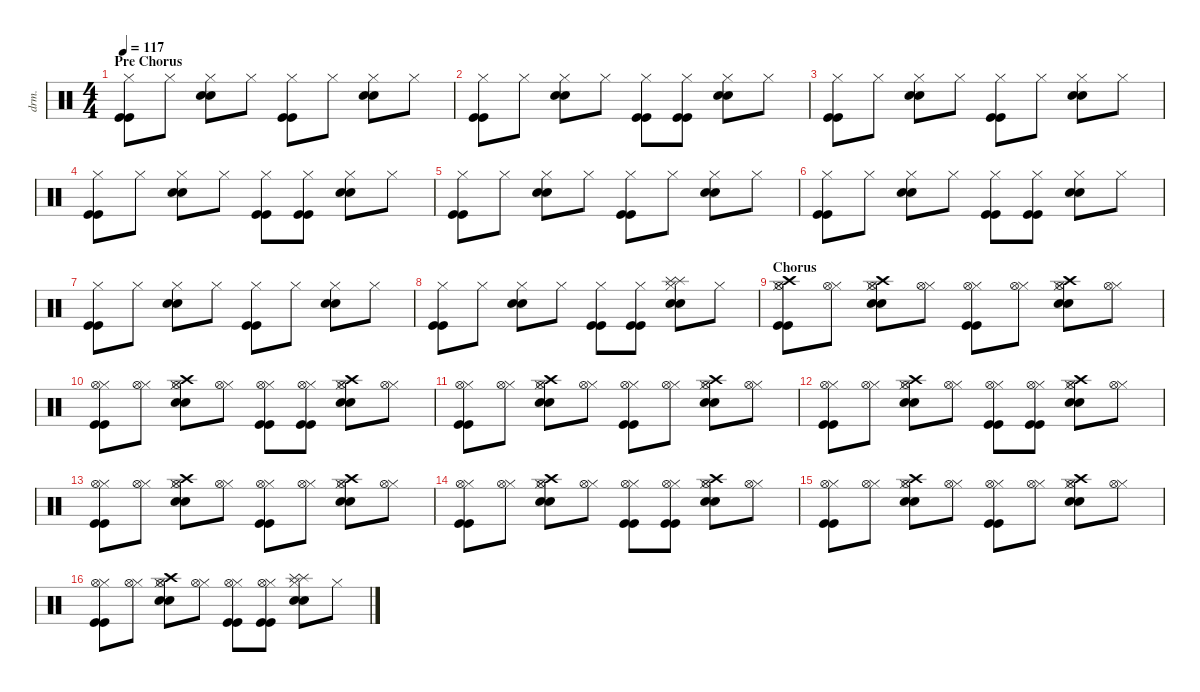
\defaultSystemsLayout 4
\hideDynamics
\bracketExtendMode nobrackets
\otherSystemsTrackNameOrientation horizontal
\track ("Drums" "drm.") {instrument percussion}
\staff {score}
\articulation defaults
\ts (4 4)
\section ("" "Pre Chorus")
\tempo 117
\clef neutral
\ks c
("Kick (hit)" "Kick (hit)" "Hi-Hat (closed)").8{dy f beam Down} "Hi-Hat (closed)".8{beam Down} ("Snare (hit) 2" "Snare (hit) 2" "Hi-Hat (closed)").8{dy mf beam Down} "Hi-Hat (closed)".8{dy f beam Down} ("Kick (hit)" "Kick (hit)" "Hi-Hat (closed)").8{beam Down} "Hi-Hat (closed)".8{beam Down} ("Snare (hit) 2" "Snare (hit) 2" "Hi-Hat (closed)").8{dy mf beam Down} "Hi-Hat (closed)".8{dy f beam Down} |
("Kick (hit)" "Kick (hit)" "Hi-Hat (closed)").8{beam Down} "Hi-Hat (closed)".8{beam Down} ("Snare (hit) 2" "Snare (hit) 2" "Hi-Hat (closed)").8{dy mf beam Down} "Hi-Hat (closed)".8{dy f beam Down} ("Kick (hit)" "Kick (hit)" "Hi-Hat (closed)").8{beam Down} ("Kick (hit)" "Kick (hit)" "Hi-Hat (closed)").8{beam Down} ("Snare (hit) 2" "Snare (hit) 2" "Hi-Hat (closed)").8{dy mf beam Down} "Hi-Hat (closed)".8{dy f beam Down} |
("Kick (hit)" "Kick (hit)" "Hi-Hat (closed)").8{beam Down} "Hi-Hat (closed)".8{beam Down} ("Snare (hit) 2" "Snare (hit) 2" "Hi-Hat (closed)").8{dy mf beam Down} "Hi-Hat (closed)".8{dy f beam Down} ("Kick (hit)" "Kick (hit)" "Hi-Hat (closed)").8{beam Down} "Hi-Hat (closed)".8{beam Down} ("Snare (hit) 2" "Snare (hit) 2" "Hi-Hat (closed)").8{dy mf beam Down} "Hi-Hat (closed)".8{dy f beam Down} |
("Kick (hit)" "Kick (hit)" "Hi-Hat (closed)").8{beam Down} "Hi-Hat (closed)".8{beam Down} ("Snare (hit) 2" "Snare (hit) 2" "Hi-Hat (closed)").8{dy mf beam Down} "Hi-Hat (closed)".8{dy f beam Down} ("Kick (hit)" "Kick (hit)" "Hi-Hat (closed)").8{beam Down} ("Kick (hit)" "Kick (hit)" "Hi-Hat (closed)").8{beam Down} ("Snare (hit) 2" "Snare (hit) 2" "Hi-Hat (closed)").8{dy mf beam Down} "Hi-Hat (closed)".8{dy f beam Down} |
("Kick (hit)" "Kick (hit)" "Hi-Hat (closed)").8{beam Down} "Hi-Hat (closed)".8{beam Down} ("Snare (hit) 2" "Snare (hit) 2" "Hi-Hat (closed)").8{dy mf beam Down} "Hi-Hat (closed)".8{dy f beam Down} ("Kick (hit)" "Kick (hit)" "Hi-Hat (closed)").8{beam Down} "Hi-Hat (closed)".8{beam Down} ("Snare (hit) 2" "Snare (hit) 2" "Hi-Hat (closed)").8{dy mf beam Down} "Hi-Hat (closed)".8{dy f beam Down} |
("Kick (hit)" "Kick (hit)" "Hi-Hat (closed)").8{beam Down} "Hi-Hat (closed)".8{beam Down} ("Snare (hit) 2" "Snare (hit) 2" "Hi-Hat (closed)").8{dy mf beam Down} "Hi-Hat (closed)".8{dy f beam Down} ("Kick (hit)" "Kick (hit)" "Hi-Hat (closed)").8{beam Down} ("Kick (hit)" "Kick (hit)" "Hi-Hat (closed)").8{beam Down} ("Snare (hit) 2" "Snare (hit) 2" "Hi-Hat (closed)").8{dy mf beam Down} "Hi-Hat (closed)".8{dy f beam Down} |
("Kick (hit)" "Kick (hit)" "Hi-Hat (closed)").8{beam Down} "Hi-Hat (closed)".8{beam Down} ("Snare (hit) 2" "Snare (hit) 2" "Hi-Hat (closed)").8{dy mf beam Down} "Hi-Hat (closed)".8{dy f beam Down} ("Kick (hit)" "Kick (hit)" "Hi-Hat (closed)").8{beam Down} "Hi-Hat (closed)".8{beam Down} ("Snare (hit) 2" "Snare (hit) 2" "Hi-Hat (closed)").8{dy mf beam Down} "Hi-Hat (closed)".8{dy f beam Down} |
("Kick (hit)" "Kick (hit)" "Hi-Hat (closed)").8{beam Down} "Hi-Hat (closed)".8{beam Down} ("Snare (hit) 2" "Snare (hit) 2" "Hi-Hat (closed)").8{dy mf beam Down} "Hi-Hat (closed)".8{dy f beam Down} ("Kick (hit)" "Kick (hit)" "Hi-Hat (closed)").8{beam Down} ("Kick (hit)" "Kick (hit)" "Hi-Hat (closed)").8{beam Down} ("Snare (hit) 2" "Snare (hit) 2" "Hi-Hat (closed)" "Splash (hit)" "Splash (hit)").8{dy mf beam Down} "Hi-Hat (closed)".8{dy f beam Down} |
\section ("" "Chorus")
("Kick (hit)" "Kick (hit)" "Hi-Hat (closed)" "Hi-Hat (open)" "Crash high (hit)").8{beam Down} ("Hi-Hat (closed)" "Hi-Hat (open)").8{beam Down} ("Snare (hit) 2" "Snare (hit) 2" "Hi-Hat (closed)" "Hi-Hat (open)" "Crash high (hit)").8{beam Down} ("Hi-Hat (closed)" "Hi-Hat (open)").8{beam Down} ("Kick (hit)" "Kick (hit)" "Hi-Hat (closed)" "Hi-Hat (open)").8{beam Down} ("Hi-Hat (closed)" "Hi-Hat (open)").8{beam Down} ("Snare (hit) 2" "Snare (hit) 2" "Hi-Hat (closed)" "Hi-Hat (open)" "Crash high (hit)").8{beam Down} ("Hi-Hat (closed)" "Hi-Hat (open)").8{beam Down} |
("Kick (hit)" "Kick (hit)" "Hi-Hat (closed)" "Hi-Hat (open)").8{beam Down} ("Hi-Hat (closed)" "Hi-Hat (open)").8{beam Down} ("Snare (hit) 2" "Snare (hit) 2" "Hi-Hat (closed)" "Hi-Hat (open)" "Crash high (hit)").8{beam Down} ("Hi-Hat (closed)" "Hi-Hat (open)").8{beam Down} ("Kick (hit)" "Kick (hit)" "Hi-Hat (closed)" "Hi-Hat (open)").8{beam Down} ("Kick (hit)" "Kick (hit)" "Hi-Hat (closed)" "Hi-Hat (open)").8{beam Down} ("Snare (hit) 2" "Snare (hit) 2" "Hi-Hat (closed)" "Hi-Hat (open)" "Crash high (hit)").8{beam Down} ("Hi-Hat (closed)" "Hi-Hat (open)").8{beam Down} |
("Kick (hit)" "Kick (hit)" "Hi-Hat (closed)" "Hi-Hat (open)").8{beam Down} ("Hi-Hat (closed)" "Hi-Hat (open)").8{beam Down} ("Snare (hit) 2" "Snare (hit) 2" "Hi-Hat (closed)" "Hi-Hat (open)" "Crash high (hit)").8{beam Down} ("Hi-Hat (closed)" "Hi-Hat (open)").8{beam Down} ("Kick (hit)" "Kick (hit)" "Hi-Hat (closed)" "Hi-Hat (open)").8{beam Down} ("Hi-Hat (closed)" "Hi-Hat (open)").8{beam Down} ("Snare (hit) 2" "Snare (hit) 2" "Hi-Hat (closed)" "Hi-Hat (open)" "Crash high (hit)").8{beam Down} ("Hi-Hat (closed)" "Hi-Hat (open)").8{beam Down} |
("Kick (hit)" "Kick (hit)" "Hi-Hat (closed)" "Hi-Hat (open)").8{beam Down} ("Hi-Hat (closed)" "Hi-Hat (open)").8{beam Down} ("Snare (hit) 2" "Snare (hit) 2" "Hi-Hat (closed)" "Hi-Hat (open)" "Crash high (hit)").8{beam Down} ("Hi-Hat (closed)" "Hi-Hat (open)").8{beam Down} ("Kick (hit)" "Kick (hit)" "Hi-Hat (closed)" "Hi-Hat (open)").8{beam Down} ("Kick (hit)" "Kick (hit)" "Hi-Hat (closed)" "Hi-Hat (open)").8{beam Down} ("Snare (hit) 2" "Snare (hit) 2" "Hi-Hat (closed)" "Hi-Hat (open)" "Crash high (hit)").8{beam Down} ("Hi-Hat (closed)" "Hi-Hat (open)").8{beam Down} |
("Kick (hit)" "Kick (hit)" "Hi-Hat (closed)" "Hi-Hat (open)").8{beam Down} ("Hi-Hat (closed)" "Hi-Hat (open)").8{beam Down} ("Snare (hit) 2" "Snare (hit) 2" "Hi-Hat (closed)" "Hi-Hat (open)" "Crash high (hit)").8{beam Down} ("Hi-Hat (closed)" "Hi-Hat (open)").8{beam Down} ("Kick (hit)" "Kick (hit)" "Hi-Hat (closed)" "Hi-Hat (open)").8{beam Down} ("Hi-Hat (closed)" "Hi-Hat (open)").8{beam Down} ("Snare (hit) 2" "Snare (hit) 2" "Hi-Hat (closed)" "Hi-Hat (open)" "Crash high (hit)").8{beam Down} ("Hi-Hat (closed)" "Hi-Hat (open)").8{beam Down} |
("Kick (hit)" "Kick (hit)" "Hi-Hat (closed)" "Hi-Hat (open)").8{beam Down} ("Hi-Hat (closed)" "Hi-Hat (open)").8{beam Down} ("Snare (hit) 2" "Snare (hit) 2" "Hi-Hat (closed)" "Hi-Hat (open)" "Crash high (hit)").8{beam Down} ("Hi-Hat (closed)" "Hi-Hat (open)").8{beam Down} ("Kick (hit)" "Kick (hit)" "Hi-Hat (closed)" "Hi-Hat (open)").8{beam Down} ("Kick (hit)" "Kick (hit)" "Hi-Hat (closed)" "Hi-Hat (open)").8{beam Down} ("Snare (hit) 2" "Snare (hit) 2" "Hi-Hat (closed)" "Hi-Hat (open)" "Crash high (hit)").8{beam Down} ("Hi-Hat (closed)" "Hi-Hat (open)").8{beam Down} |
("Kick (hit)" "Kick (hit)" "Hi-Hat (closed)" "Hi-Hat (open)").8{beam Down} ("Hi-Hat (closed)" "Hi-Hat (open)").8{beam Down} ("Snare (hit) 2" "Snare (hit) 2" "Hi-Hat (closed)" "Hi-Hat (open)" "Crash high (hit)").8{beam Down} ("Hi-Hat (closed)" "Hi-Hat (open)").8{beam Down} ("Kick (hit)" "Kick (hit)" "Hi-Hat (closed)" "Hi-Hat (open)").8{beam Down} ("Hi-Hat (closed)" "Hi-Hat (open)").8{beam Down} ("Snare (hit) 2" "Snare (hit) 2" "Hi-Hat (closed)" "Hi-Hat (open)" "Crash high (hit)").8{beam Down} ("Hi-Hat (closed)" "Hi-Hat (open)").8{beam Down} |
("Kick (hit)" "Kick (hit)" "Hi-Hat (closed)" "Hi-Hat (open)").8{beam Down} ("Hi-Hat (closed)" "Hi-Hat (open)").8{beam Down} ("Snare (hit) 2" "Snare (hit) 2" "Hi-Hat (closed)" "Hi-Hat (open)" "Crash high (hit)").8{beam Down} ("Hi-Hat (closed)" "Hi-Hat (open)").8{beam Down} ("Kick (hit)" "Kick (hit)" "Hi-Hat (closed)" "Hi-Hat (open)").8{beam Down} ("Kick (hit)" "Kick (hit)" "Hi-Hat (closed)" "Hi-Hat (open)").8{beam Down} ("Snare (hit) 2" "Snare (hit) 2" "Hi-Hat (closed)" "Splash (hit)" "Splash (hit)").8{dy ff beam Down} "Hi-Hat (closed)".8{dy f beam Down}
